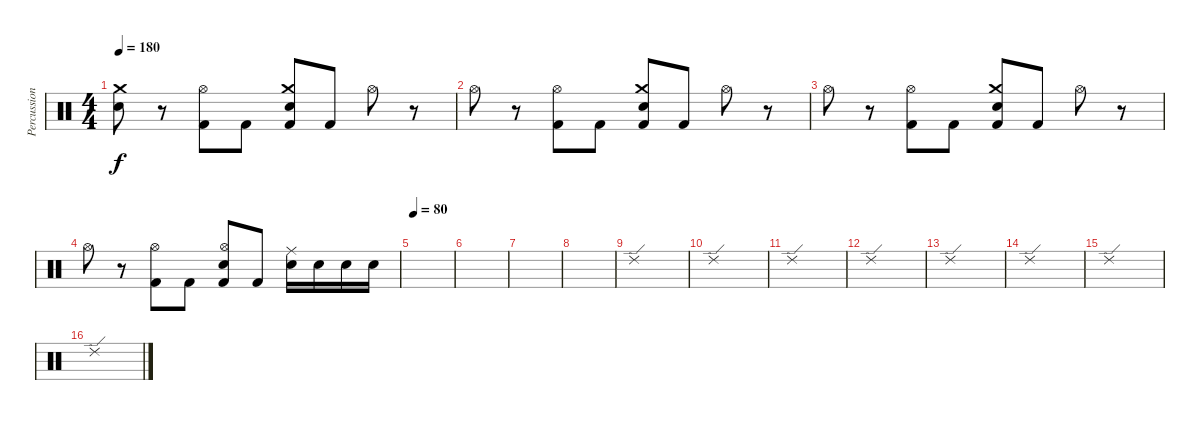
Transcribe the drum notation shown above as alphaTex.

\track ("Percussions" "Percussion") {instrument percussion}
\staff {score}
\articulation defaults
\ts (4 4)
\tempo 180
\clef neutral
\ks c
("Snare (hit) 2" "Crash medium (hit)").8{dy f} r.8 ("Hi-Hat (open)" "Kick (hit) 2").8 "Kick (hit) 2".8 ("Snare (hit) 2" "Crash medium (hit)" "Kick (hit) 2").8 "Kick (hit) 2".8 "Hi-Hat (open)".8 r.8 |
"Hi-Hat (open)".8 r.8 ("Hi-Hat (open)" "Kick (hit) 2").8 "Kick (hit) 2".8 ("Snare (hit) 2" "Crash medium (hit)" "Kick (hit) 2").8 "Kick (hit) 2".8 "Hi-Hat (open)".8 r.8 |
"Hi-Hat (open)".8 r.8 ("Hi-Hat (open)" "Kick (hit) 2").8 "Kick (hit) 2".8 ("Snare (hit) 2" "Crash medium (hit)" "Kick (hit) 2").8 "Kick (hit) 2".8 "Hi-Hat (open)".8 r.8 |
"Hi-Hat (open)".8 r.8 ("Hi-Hat (open)" "Kick (hit) 2").8 "Kick (hit) 2".8 ("Snare (hit) 2" "Hi-Hat (open)" "Kick (hit) 2").8 "Kick (hit) 2".8 ("Snare (hit) 2" "Ride (middle)").16 "Snare (hit) 2".16 "Snare (hit) 2".16 "Snare (hit) 2".16 |
\tempo 80
|
|
|
|
"Ride (edge) 2".1 |
"Ride (edge) 2".1 |
"Ride (edge) 2".1 |
"Ride (edge) 2".1 |
"Ride (edge) 2".1 |
"Ride (edge) 2".1 |
"Ride (edge) 2".1 |
"Ride (edge) 2".1
